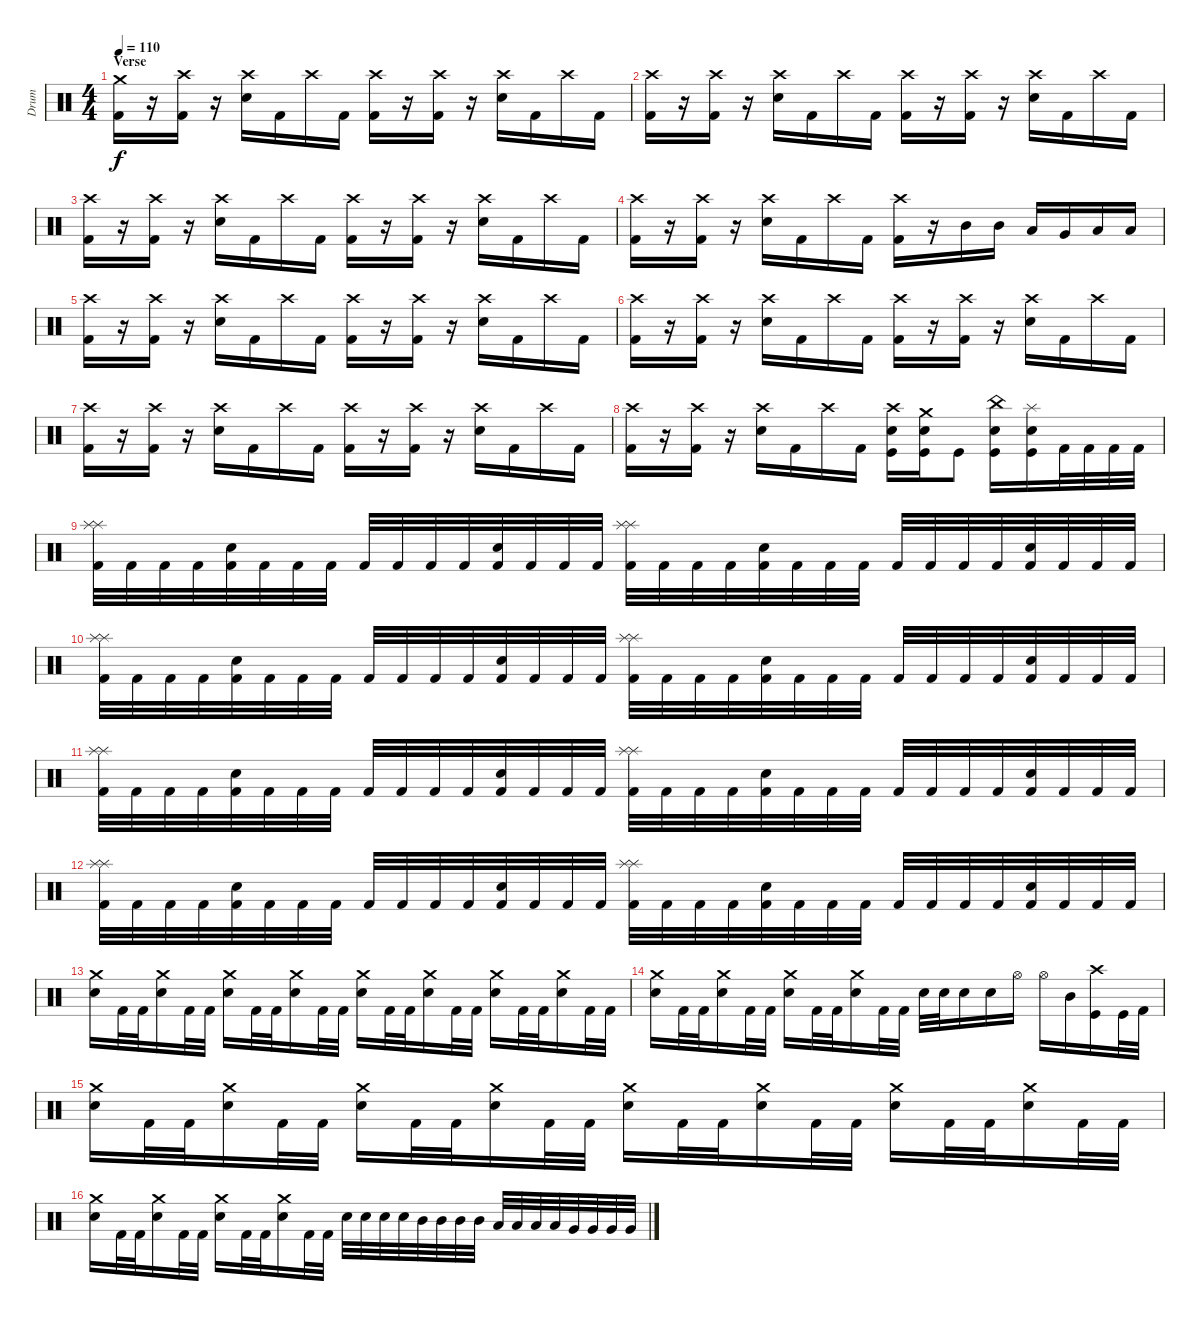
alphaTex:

\track ("Drum" "Drum") {instrument percussion}
\staff {score}
\articulation defaults
\ts (4 4)
\section ("" "Verse")
\tempo 110
\clef neutral
\ks c
("Crash medium (hit)" "Kick (hit) 2").16{dy f} r.16 ("Crash high (hit)" "Kick (hit) 2").16 r.16 ("Crash high (hit)" "Snare (hit) 2").16 "Kick (hit) 2".16 "Crash high (hit)".16 "Kick (hit) 2".16 ("Crash high (hit)" "Kick (hit) 2").16 r.16 ("Crash high (hit)" "Kick (hit) 2").16 r.16 ("Crash high (hit)" "Snare (hit) 2").16 "Kick (hit) 2".16 "Crash high (hit)".16 "Kick (hit) 2".16 |
("Crash high (hit)" "Kick (hit) 2").16 r.16 ("Crash high (hit)" "Kick (hit) 2").16 r.16 ("Crash high (hit)" "Snare (hit) 2").16 "Kick (hit) 2".16 "Crash high (hit)".16 "Kick (hit) 2".16 ("Crash high (hit)" "Kick (hit) 2").16 r.16 ("Crash high (hit)" "Kick (hit) 2").16 r.16 ("Crash high (hit)" "Snare (hit) 2").16 "Kick (hit) 2".16 "Crash high (hit)".16 "Kick (hit) 2".16 |
("Crash high (hit)" "Kick (hit) 2").16 r.16 ("Crash high (hit)" "Kick (hit) 2").16 r.16 ("Crash high (hit)" "Snare (hit) 2").16 "Kick (hit) 2".16 "Crash high (hit)".16 "Kick (hit) 2".16 ("Crash high (hit)" "Kick (hit) 2").16 r.16 ("Crash high (hit)" "Kick (hit) 2").16 r.16 ("Crash high (hit)" "Snare (hit) 2").16 "Kick (hit) 2".16 "Crash high (hit)".16 "Kick (hit) 2".16 |
("Crash high (hit)" "Kick (hit) 2").16 r.16 ("Crash high (hit)" "Kick (hit) 2").16 r.16 ("Crash high (hit)" "Snare (hit) 2").16 "Kick (hit) 2".16 "Crash high (hit)".16 "Kick (hit) 2".16 ("Crash high (hit)" "Kick (hit) 2").16 r.16 "Mid Tom (hit)".16 "Mid Tom (hit)".16 "Low Tom (hit)".16 "Very Low Tom (hit)".16 "Low Floor Tom (hit)".16 "Low Floor Tom (hit)".16 |
("Crash high (hit)" "Kick (hit) 2").16 r.16 ("Crash high (hit)" "Kick (hit) 2").16 r.16 ("Crash high (hit)" "Snare (hit) 2").16 "Kick (hit) 2".16 "Crash high (hit)".16 "Kick (hit) 2".16 ("Crash high (hit)" "Kick (hit) 2").16 r.16 ("Crash high (hit)" "Kick (hit) 2").16 r.16 ("Crash high (hit)" "Snare (hit) 2").16 "Kick (hit) 2".16 "Crash high (hit)".16 "Kick (hit) 2".16 |
("Crash high (hit)" "Kick (hit) 2").16 r.16 ("Crash high (hit)" "Kick (hit) 2").16 r.16 ("Crash high (hit)" "Snare (hit) 2").16 "Kick (hit) 2".16 "Crash high (hit)".16 "Kick (hit) 2".16 ("Crash high (hit)" "Kick (hit) 2").16 r.16 ("Crash high (hit)" "Kick (hit) 2").16 r.16 ("Crash high (hit)" "Snare (hit) 2").16 "Kick (hit) 2".16 "Crash high (hit)".16 "Kick (hit) 2".16 |
("Crash high (hit)" "Kick (hit) 2").16 r.16 ("Crash high (hit)" "Kick (hit) 2").16 r.16 ("Crash high (hit)" "Snare (hit) 2").16 "Kick (hit) 2".16 "Crash high (hit)".16 "Kick (hit) 2".16 ("Crash high (hit)" "Kick (hit) 2").16 r.16 ("Crash high (hit)" "Kick (hit) 2").16 r.16 ("Crash high (hit)" "Snare (hit) 2").16 "Kick (hit) 2".16 "Crash high (hit)".16 "Kick (hit) 2".16 |
("Crash high (hit)" "Kick (hit) 2").16 r.16 ("Crash high (hit)" "Kick (hit) 2").16 r.16 ("Crash high (hit)" "Snare (hit) 2").16 "Kick (hit) 2".16 "Crash high (hit)".16 "Kick (hit) 2".16 ("Crash high (hit)" "Electric Snare (hit)" "Kick (hit)").16 ("Crash medium (hit)" "Electric Snare (hit)" "Kick (hit)").16 "Kick (hit)".8 ("China (hit)" "Electric Snare (hit)" "Kick (hit)").16 ("Splash (hit)" "Electric Snare (hit)" "Kick (hit)").16 "Kick (hit) 2".32 "Kick (hit) 2".32 "Kick (hit) 2".32 "Kick (hit) 2".32 |
("Kick (hit) 2" "Splash (hit)" "Splash (hit)").32 "Kick (hit) 2".32 "Kick (hit) 2".32 "Kick (hit) 2".32 ("Kick (hit) 2" "Electric Snare (hit)").32 "Kick (hit) 2".32 "Kick (hit) 2".32 "Kick (hit) 2".32 "Kick (hit) 2".32 "Kick (hit) 2".32 "Kick (hit) 2".32 "Kick (hit) 2".32 ("Kick (hit) 2" "Electric Snare (hit)").32 "Kick (hit) 2".32 "Kick (hit) 2".32 "Kick (hit) 2".32 ("Kick (hit) 2" "Splash (hit)" "Splash (hit)").32 "Kick (hit) 2".32 "Kick (hit) 2".32 "Kick (hit) 2".32 ("Kick (hit) 2" "Electric Snare (hit)").32 "Kick (hit) 2".32 "Kick (hit) 2".32 "Kick (hit) 2".32 "Kick (hit) 2".32 "Kick (hit) 2".32 "Kick (hit) 2".32 "Kick (hit) 2".32 ("Kick (hit) 2" "Electric Snare (hit)").32 "Kick (hit) 2".32 "Kick (hit) 2".32 "Kick (hit) 2".32 |
("Kick (hit) 2" "Splash (hit)" "Splash (hit)").32 "Kick (hit) 2".32 "Kick (hit) 2".32 "Kick (hit) 2".32 ("Kick (hit) 2" "Electric Snare (hit)").32 "Kick (hit) 2".32 "Kick (hit) 2".32 "Kick (hit) 2".32 "Kick (hit) 2".32 "Kick (hit) 2".32 "Kick (hit) 2".32 "Kick (hit) 2".32 ("Kick (hit) 2" "Electric Snare (hit)").32 "Kick (hit) 2".32 "Kick (hit) 2".32 "Kick (hit) 2".32 ("Kick (hit) 2" "Splash (hit)" "Splash (hit)").32 "Kick (hit) 2".32 "Kick (hit) 2".32 "Kick (hit) 2".32 ("Kick (hit) 2" "Electric Snare (hit)").32 "Kick (hit) 2".32 "Kick (hit) 2".32 "Kick (hit) 2".32 "Kick (hit) 2".32 "Kick (hit) 2".32 "Kick (hit) 2".32 "Kick (hit) 2".32 ("Kick (hit) 2" "Electric Snare (hit)").32 "Kick (hit) 2".32 "Kick (hit) 2".32 "Kick (hit) 2".32 |
("Kick (hit) 2" "Splash (hit)" "Splash (hit)").32 "Kick (hit) 2".32 "Kick (hit) 2".32 "Kick (hit) 2".32 ("Kick (hit) 2" "Electric Snare (hit)").32 "Kick (hit) 2".32 "Kick (hit) 2".32 "Kick (hit) 2".32 "Kick (hit) 2".32 "Kick (hit) 2".32 "Kick (hit) 2".32 "Kick (hit) 2".32 ("Kick (hit) 2" "Electric Snare (hit)").32 "Kick (hit) 2".32 "Kick (hit) 2".32 "Kick (hit) 2".32 ("Kick (hit) 2" "Splash (hit)" "Splash (hit)").32 "Kick (hit) 2".32 "Kick (hit) 2".32 "Kick (hit) 2".32 ("Kick (hit) 2" "Electric Snare (hit)").32 "Kick (hit) 2".32 "Kick (hit) 2".32 "Kick (hit) 2".32 "Kick (hit) 2".32 "Kick (hit) 2".32 "Kick (hit) 2".32 "Kick (hit) 2".32 ("Kick (hit) 2" "Electric Snare (hit)").32 "Kick (hit) 2".32 "Kick (hit) 2".32 "Kick (hit) 2".32 |
("Kick (hit) 2" "Splash (hit)" "Splash (hit)").32 "Kick (hit) 2".32 "Kick (hit) 2".32 "Kick (hit) 2".32 ("Kick (hit) 2" "Electric Snare (hit)").32 "Kick (hit) 2".32 "Kick (hit) 2".32 "Kick (hit) 2".32 "Kick (hit) 2".32 "Kick (hit) 2".32 "Kick (hit) 2".32 "Kick (hit) 2".32 ("Kick (hit) 2" "Electric Snare (hit)").32 "Kick (hit) 2".32 "Kick (hit) 2".32 "Kick (hit) 2".32 ("Kick (hit) 2" "Splash (hit)" "Splash (hit)").32 "Kick (hit) 2".32 "Kick (hit) 2".32 "Kick (hit) 2".32 ("Kick (hit) 2" "Electric Snare (hit)").32 "Kick (hit) 2".32 "Kick (hit) 2".32 "Kick (hit) 2".32 "Kick (hit) 2".32 "Kick (hit) 2".32 "Kick (hit) 2".32 "Kick (hit) 2".32 ("Kick (hit) 2" "Electric Snare (hit)").32 "Kick (hit) 2".32 "Kick (hit) 2".32 "Kick (hit) 2".32 |
("Crash medium (hit)" "Snare (hit) 2").16 "Kick (hit) 2".32 "Kick (hit) 2".32 ("Crash medium (hit)" "Snare (hit) 2").16 "Kick (hit) 2".32 "Kick (hit) 2".32 ("Crash medium (hit)" "Snare (hit) 2").16 "Kick (hit) 2".32 "Kick (hit) 2".32 ("Crash medium (hit)" "Snare (hit) 2").16 "Kick (hit) 2".32 "Kick (hit) 2".32 ("Crash medium (hit)" "Snare (hit) 2").16 "Kick (hit) 2".32 "Kick (hit) 2".32 ("Crash medium (hit)" "Snare (hit) 2").16 "Kick (hit) 2".32 "Kick (hit) 2".32 ("Crash medium (hit)" "Snare (hit) 2").16 "Kick (hit) 2".32 "Kick (hit) 2".32 ("Crash medium (hit)" "Snare (hit) 2").16 "Kick (hit) 2".32 "Kick (hit) 2".32 |
("Crash medium (hit)" "Snare (hit) 2").16 "Kick (hit) 2".32 "Kick (hit) 2".32 ("Crash medium (hit)" "Snare (hit) 2").16 "Kick (hit) 2".32 "Kick (hit) 2".32 ("Crash medium (hit)" "Snare (hit) 2").16 "Kick (hit) 2".32 "Kick (hit) 2".32 ("Crash medium (hit)" "Snare (hit) 2").16 "Kick (hit) 2".32 "Kick (hit) 2".32 "Snare (hit) 2".32 "Snare (hit) 2".32 "Electric Snare (hit)".16 "Snare (hit) 2".16 "Hi-Hat (open)".16 "Hi-Hat (open)".16 "Mid Tom (hit)".16 ("Crash high (hit)" "Kick (hit)").16 "Kick (hit)".32 "Kick (hit) 2".32 |
("Crash medium (hit)" "Snare (hit) 2").16 "Kick (hit) 2".32 "Kick (hit) 2".32 ("Crash medium (hit)" "Snare (hit) 2").16 "Kick (hit) 2".32 "Kick (hit) 2".32 ("Crash medium (hit)" "Snare (hit) 2").16 "Kick (hit) 2".32 "Kick (hit) 2".32 ("Crash medium (hit)" "Snare (hit) 2").16 "Kick (hit) 2".32 "Kick (hit) 2".32 ("Crash medium (hit)" "Snare (hit) 2").16 "Kick (hit) 2".32 "Kick (hit) 2".32 ("Crash medium (hit)" "Snare (hit) 2").16 "Kick (hit) 2".32 "Kick (hit) 2".32 ("Crash medium (hit)" "Snare (hit) 2").16 "Kick (hit) 2".32 "Kick (hit) 2".32 ("Crash medium (hit)" "Snare (hit) 2").16 "Kick (hit) 2".32 "Kick (hit) 2".32 |
("Crash medium (hit)" "Snare (hit) 2").16 "Kick (hit) 2".32 "Kick (hit) 2".32 ("Crash medium (hit)" "Snare (hit) 2").16 "Kick (hit) 2".32 "Kick (hit) 2".32 ("Crash medium (hit)" "Snare (hit) 2").16 "Kick (hit) 2".32 "Kick (hit) 2".32 ("Crash medium (hit)" "Snare (hit) 2").16 "Kick (hit) 2".32 "Kick (hit) 2".32 "Electric Snare (hit)".32 "Electric Snare (hit)".32 "Electric Snare (hit)".32 "Electric Snare (hit)".32 "Mid Tom (hit)".32 "Mid Tom (hit)".32 "Mid Tom (hit)".32 "Mid Tom (hit)".32 "Low Tom (hit)".32 "Low Tom (hit)".32 "Low Tom (hit)".32 "Low Tom (hit)".32 "Very Low Tom (hit)".32 "Very Low Tom (hit)".32 "Very Low Tom (hit)".32 "Very Low Tom (hit)".32
